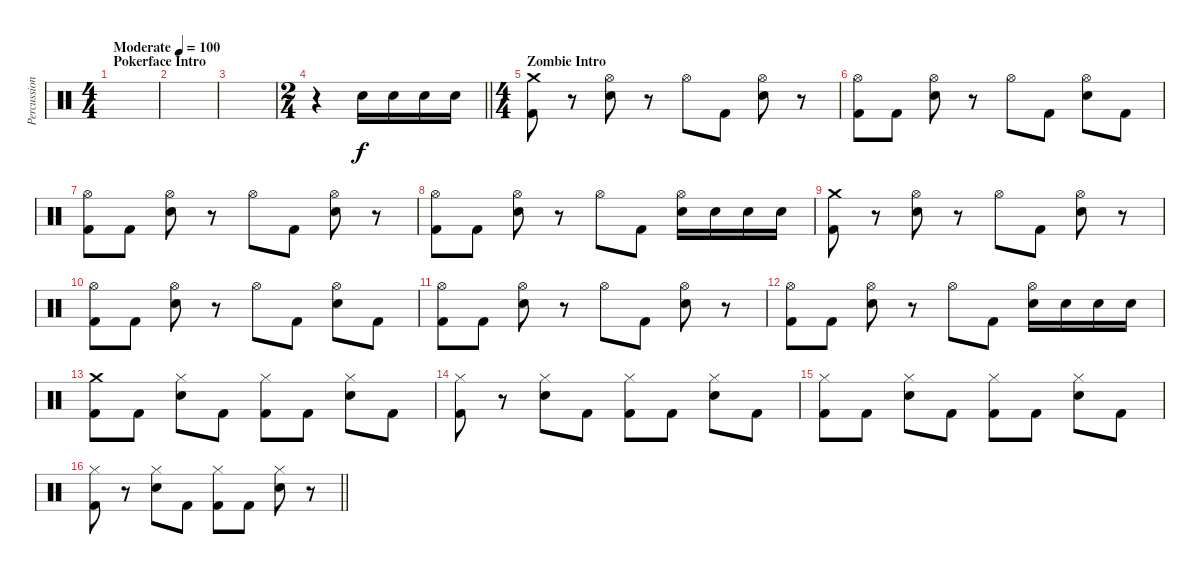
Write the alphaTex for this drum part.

\track ("Percussion" "Percussion") {instrument percussion}
\staff {score}
\articulation defaults
\ts (4 4)
\section ("" "Pokerface Intro")
\tempo (100 "Moderate")
\clef neutral
\ks c
|
|
|
\ts (2 4)
\barLineRight lightlight
r.4 "Snare (hit) 2".16 "Snare (hit) 2".16 "Snare (hit) 2".16 "Snare (hit) 2".16 |
\ts (4 4)
\section ("" "Zombie Intro")
("Crash medium (hit)" "Kick (hit) 2").8 r.8 ("Hi-Hat (open)" "Snare (hit) 2").8 r.8 "Hi-Hat (open)".8 "Kick (hit) 2".8 ("Hi-Hat (open)" "Snare (hit) 2").8 r.8 |
("Hi-Hat (open)" "Kick (hit) 2").8 "Kick (hit) 2".8 ("Hi-Hat (open)" "Snare (hit) 2").8 r.8 "Hi-Hat (open)".8 "Kick (hit) 2".8 ("Hi-Hat (open)" "Snare (hit) 2").8 "Kick (hit) 2".8 |
("Hi-Hat (open)" "Kick (hit) 2").8 "Kick (hit) 2".8 ("Hi-Hat (open)" "Snare (hit) 2").8 r.8 "Hi-Hat (open)".8 "Kick (hit) 2".8 ("Hi-Hat (open)" "Snare (hit) 2").8 r.8 |
("Hi-Hat (open)" "Kick (hit) 2").8 "Kick (hit) 2".8 ("Hi-Hat (open)" "Snare (hit) 2").8 r.8 "Hi-Hat (open)".8 "Kick (hit) 2".8 ("Hi-Hat (open)" "Snare (hit) 2").16 "Snare (hit) 2".16 "Snare (hit) 2".16 "Snare (hit) 2".16 |
("Crash medium (hit)" "Kick (hit) 2").8 r.8 ("Hi-Hat (open)" "Snare (hit) 2").8 r.8 "Hi-Hat (open)".8 "Kick (hit) 2".8 ("Hi-Hat (open)" "Snare (hit) 2").8 r.8 |
("Hi-Hat (open)" "Kick (hit) 2").8 "Kick (hit) 2".8 ("Hi-Hat (open)" "Snare (hit) 2").8 r.8 "Hi-Hat (open)".8 "Kick (hit) 2".8 ("Hi-Hat (open)" "Snare (hit) 2").8 "Kick (hit) 2".8 |
("Hi-Hat (open)" "Kick (hit) 2").8 "Kick (hit) 2".8 ("Hi-Hat (open)" "Snare (hit) 2").8 r.8 "Hi-Hat (open)".8 "Kick (hit) 2".8 ("Hi-Hat (open)" "Snare (hit) 2").8 r.8 |
("Hi-Hat (open)" "Kick (hit) 2").8 "Kick (hit) 2".8 ("Hi-Hat (open)" "Snare (hit) 2").8 r.8 "Hi-Hat (open)".8 "Kick (hit) 2".8 ("Hi-Hat (open)" "Snare (hit) 2").16 "Snare (hit) 2".16 "Snare (hit) 2".16 "Snare (hit) 2".16 |
("Crash medium (hit)" "Kick (hit) 2").8 "Kick (hit) 2".8 ("Hi-Hat (closed)" "Snare (hit) 2").8 "Kick (hit) 2".8 ("Hi-Hat (closed)" "Kick (hit) 2").8 "Kick (hit) 2".8 ("Hi-Hat (closed)" "Snare (hit) 2").8 "Kick (hit) 2".8 |
("Hi-Hat (closed)" "Kick (hit) 2").8 r.8 ("Hi-Hat (closed)" "Snare (hit) 2").8 "Kick (hit) 2".8 ("Hi-Hat (closed)" "Kick (hit) 2").8 "Kick (hit) 2".8 ("Hi-Hat (closed)" "Snare (hit) 2").8 "Kick (hit) 2".8 |
("Hi-Hat (closed)" "Kick (hit) 2").8 "Kick (hit) 2".8 ("Hi-Hat (closed)" "Snare (hit) 2").8 "Kick (hit) 2".8 ("Hi-Hat (closed)" "Kick (hit) 2").8 "Kick (hit) 2".8 ("Hi-Hat (closed)" "Snare (hit) 2").8 "Kick (hit) 2".8 |
\barLineRight lightlight
("Hi-Hat (closed)" "Kick (hit) 2").8 r.8 ("Hi-Hat (closed)" "Snare (hit) 2").8 "Kick (hit) 2".8 ("Hi-Hat (closed)" "Kick (hit) 2").8 "Kick (hit) 2".8 ("Hi-Hat (closed)" "Snare (hit) 2").8 r.8
